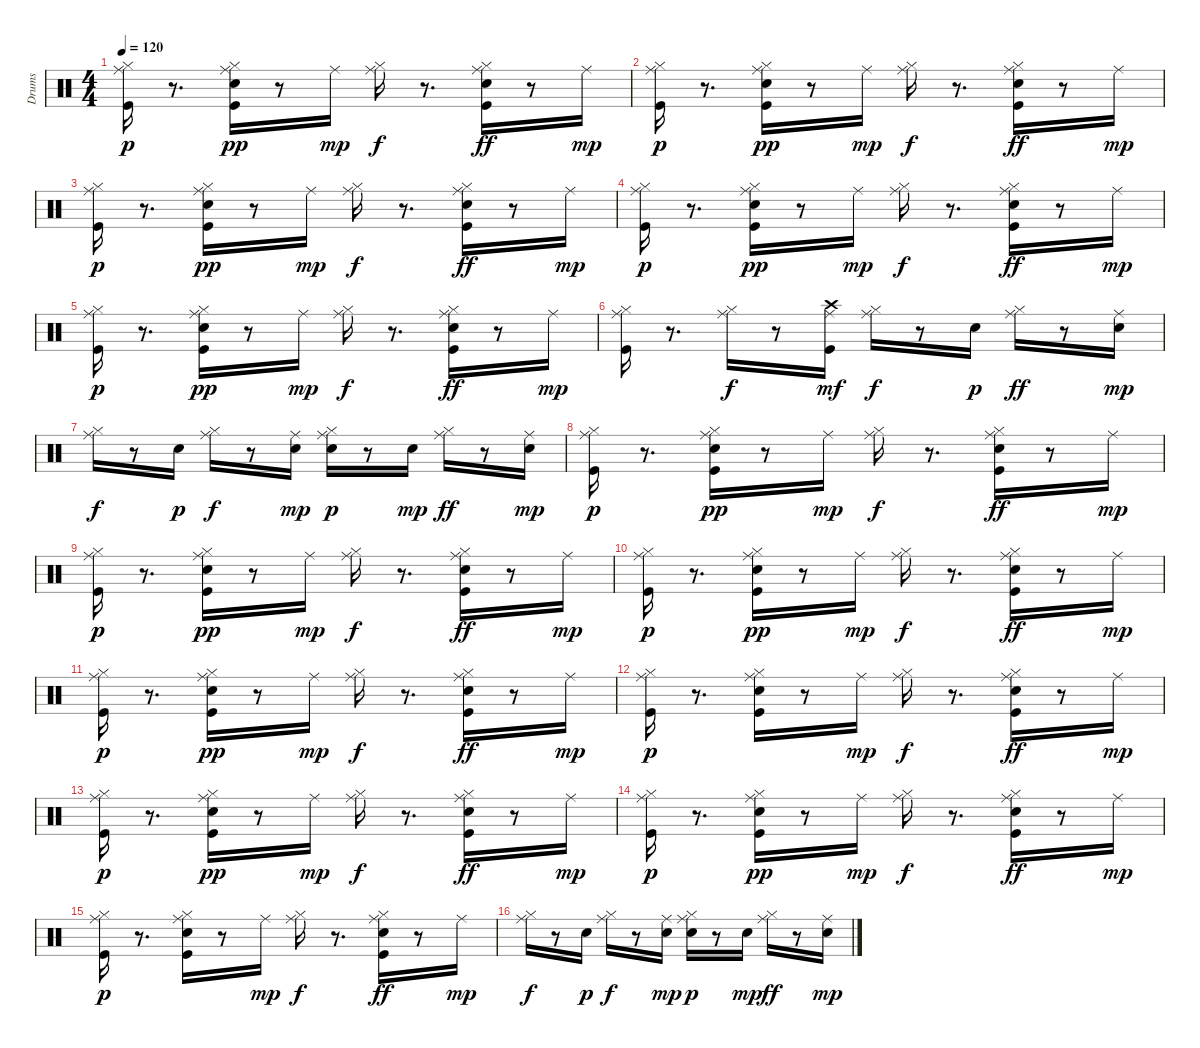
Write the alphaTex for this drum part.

\track ("Drums" "Drums") {instrument percussion}
\staff {score}
\articulation defaults
\ts (4 4)
\tempo 120
\clef neutral
\ks c
("Kick (hit)" "Hi-Hat (closed)" "Ride (middle)").16{dy p} r.8{d} ("Kick (hit)" "Snare (hit) 2" "Hi-Hat (closed)" "Ride (middle)").16{dy pp} r.8 "Ride (middle)".16{dy mp} ("Hi-Hat (closed)" "Ride (middle)").16{dy f} r.8{d} ("Kick (hit)" "Snare (hit) 2" "Hi-Hat (closed)" "Ride (middle)").16{dy ff} r.8 "Ride (middle)".16{dy mp} |
("Kick (hit)" "Hi-Hat (closed)" "Ride (middle)").16{dy p} r.8{d} ("Kick (hit)" "Snare (hit) 2" "Hi-Hat (closed)" "Ride (middle)").16{dy pp} r.8 "Ride (middle)".16{dy mp} ("Hi-Hat (closed)" "Ride (middle)").16{dy f} r.8{d} ("Kick (hit)" "Snare (hit) 2" "Hi-Hat (closed)" "Ride (middle)").16{dy ff} r.8 "Ride (middle)".16{dy mp} |
("Kick (hit)" "Hi-Hat (closed)" "Ride (middle)").16{dy p} r.8{d} ("Kick (hit)" "Snare (hit) 2" "Hi-Hat (closed)" "Ride (middle)").16{dy pp} r.8 "Ride (middle)".16{dy mp} ("Hi-Hat (closed)" "Ride (middle)").16{dy f} r.8{d} ("Kick (hit)" "Snare (hit) 2" "Hi-Hat (closed)" "Ride (middle)").16{dy ff} r.8 "Ride (middle)".16{dy mp} |
("Kick (hit)" "Hi-Hat (closed)" "Ride (middle)").16{dy p} r.8{d} ("Kick (hit)" "Snare (hit) 2" "Hi-Hat (closed)" "Ride (middle)").16{dy pp} r.8 "Ride (middle)".16{dy mp} ("Hi-Hat (closed)" "Ride (middle)").16{dy f} r.8{d} ("Kick (hit)" "Snare (hit) 2" "Hi-Hat (closed)" "Ride (middle)").16{dy ff} r.8 "Ride (middle)".16{dy mp} |
("Kick (hit)" "Hi-Hat (closed)" "Ride (middle)").16{dy p} r.8{d} ("Kick (hit)" "Snare (hit) 2" "Hi-Hat (closed)" "Ride (middle)").16{dy pp} r.8 "Ride (middle)".16{dy mp} ("Hi-Hat (closed)" "Ride (middle)").16{dy f} r.8{d} ("Kick (hit)" "Snare (hit) 2" "Hi-Hat (closed)" "Ride (middle)").16{dy ff} r.8 "Ride (middle)".16{dy mp} |
("Kick (hit)" "Hi-Hat (closed)" "Ride (middle)").16 r.8{d} ("Hi-Hat (closed)" "Ride (middle)").16{dy f} r.8 ("Kick (hit)" "Ride (middle)" "Crash high (hit)").16{dy mf} ("Hi-Hat (closed)" "Ride (middle)").16{dy f} r.8 "Snare (hit) 2".16{dy p} ("Hi-Hat (closed)" "Ride (middle)").16{dy ff} r.8 ("Snare (hit) 2" "Ride (middle)").16{dy mp} |
("Hi-Hat (closed)" "Ride (middle)").16{dy f} r.8 "Snare (hit) 2".16{dy p} ("Hi-Hat (closed)" "Ride (middle)").16{dy f} r.8 ("Snare (hit) 2" "Ride (middle)").16{dy mp} ("Snare (hit) 2" "Hi-Hat (closed)" "Ride (middle)").16{dy p} r.8 "Snare (hit) 2".16{dy mp} ("Hi-Hat (closed)" "Ride (middle)").16{dy ff} r.8 ("Snare (hit) 2" "Ride (middle)").16{dy mp} |
("Kick (hit)" "Hi-Hat (closed)" "Ride (middle)").16{dy p} r.8{d} ("Kick (hit)" "Snare (hit) 2" "Hi-Hat (closed)" "Ride (middle)").16{dy pp} r.8 "Ride (middle)".16{dy mp} ("Hi-Hat (closed)" "Ride (middle)").16{dy f} r.8{d} ("Kick (hit)" "Snare (hit) 2" "Hi-Hat (closed)" "Ride (middle)").16{dy ff} r.8 "Ride (middle)".16{dy mp} |
("Kick (hit)" "Hi-Hat (closed)" "Ride (middle)").16{dy p} r.8{d} ("Kick (hit)" "Snare (hit) 2" "Hi-Hat (closed)" "Ride (middle)").16{dy pp} r.8 "Ride (middle)".16{dy mp} ("Hi-Hat (closed)" "Ride (middle)").16{dy f} r.8{d} ("Kick (hit)" "Snare (hit) 2" "Hi-Hat (closed)" "Ride (middle)").16{dy ff} r.8 "Ride (middle)".16{dy mp} |
("Kick (hit)" "Hi-Hat (closed)" "Ride (middle)").16{dy p} r.8{d} ("Kick (hit)" "Snare (hit) 2" "Hi-Hat (closed)" "Ride (middle)").16{dy pp} r.8 "Ride (middle)".16{dy mp} ("Hi-Hat (closed)" "Ride (middle)").16{dy f} r.8{d} ("Kick (hit)" "Snare (hit) 2" "Hi-Hat (closed)" "Ride (middle)").16{dy ff} r.8 "Ride (middle)".16{dy mp} |
("Kick (hit)" "Hi-Hat (closed)" "Ride (middle)").16{dy p} r.8{d} ("Kick (hit)" "Snare (hit) 2" "Hi-Hat (closed)" "Ride (middle)").16{dy pp} r.8 "Ride (middle)".16{dy mp} ("Hi-Hat (closed)" "Ride (middle)").16{dy f} r.8{d} ("Kick (hit)" "Snare (hit) 2" "Hi-Hat (closed)" "Ride (middle)").16{dy ff} r.8 "Ride (middle)".16{dy mp} |
("Kick (hit)" "Hi-Hat (closed)" "Ride (middle)").16{dy p} r.8{d} ("Kick (hit)" "Snare (hit) 2" "Hi-Hat (closed)" "Ride (middle)").16 r.8 "Ride (middle)".16{dy mp} ("Hi-Hat (closed)" "Ride (middle)").16{dy f} r.8{d} ("Kick (hit)" "Snare (hit) 2" "Hi-Hat (closed)" "Ride (middle)").16{dy ff} r.8 "Ride (middle)".16{dy mp} |
("Kick (hit)" "Hi-Hat (closed)" "Ride (middle)").16{dy p} r.8{d} ("Kick (hit)" "Snare (hit) 2" "Hi-Hat (closed)" "Ride (middle)").16{dy pp} r.8 "Ride (middle)".16{dy mp} ("Hi-Hat (closed)" "Ride (middle)").16{dy f} r.8{d} ("Kick (hit)" "Snare (hit) 2" "Hi-Hat (closed)" "Ride (middle)").16{dy ff} r.8 "Ride (middle)".16{dy mp} |
("Kick (hit)" "Hi-Hat (closed)" "Ride (middle)").16{dy p} r.8{d} ("Kick (hit)" "Snare (hit) 2" "Hi-Hat (closed)" "Ride (middle)").16{dy pp} r.8 "Ride (middle)".16{dy mp} ("Hi-Hat (closed)" "Ride (middle)").16{dy f} r.8{d} ("Kick (hit)" "Snare (hit) 2" "Hi-Hat (closed)" "Ride (middle)").16{dy ff} r.8 "Ride (middle)".16{dy mp} |
("Kick (hit)" "Hi-Hat (closed)" "Ride (middle)").16{dy p} r.8{d} ("Kick (hit)" "Snare (hit) 2" "Hi-Hat (closed)" "Ride (middle)").16 r.8 "Ride (middle)".16{dy mp} ("Hi-Hat (closed)" "Ride (middle)").16{dy f} r.8{d} ("Kick (hit)" "Snare (hit) 2" "Hi-Hat (closed)" "Ride (middle)").16{dy ff} r.8 "Ride (middle)".16{dy mp} |
("Hi-Hat (closed)" "Ride (middle)").16{dy f} r.8 "Snare (hit) 2".16{dy p} ("Hi-Hat (closed)" "Ride (middle)").16{dy f} r.8 ("Snare (hit) 2" "Ride (middle)").16{dy mp} ("Snare (hit) 2" "Hi-Hat (closed)" "Ride (middle)").16{dy p} r.8 "Snare (hit) 2".16{dy mp} ("Hi-Hat (closed)" "Ride (middle)").16{dy ff} r.8 ("Snare (hit) 2" "Ride (middle)").16{dy mp}
